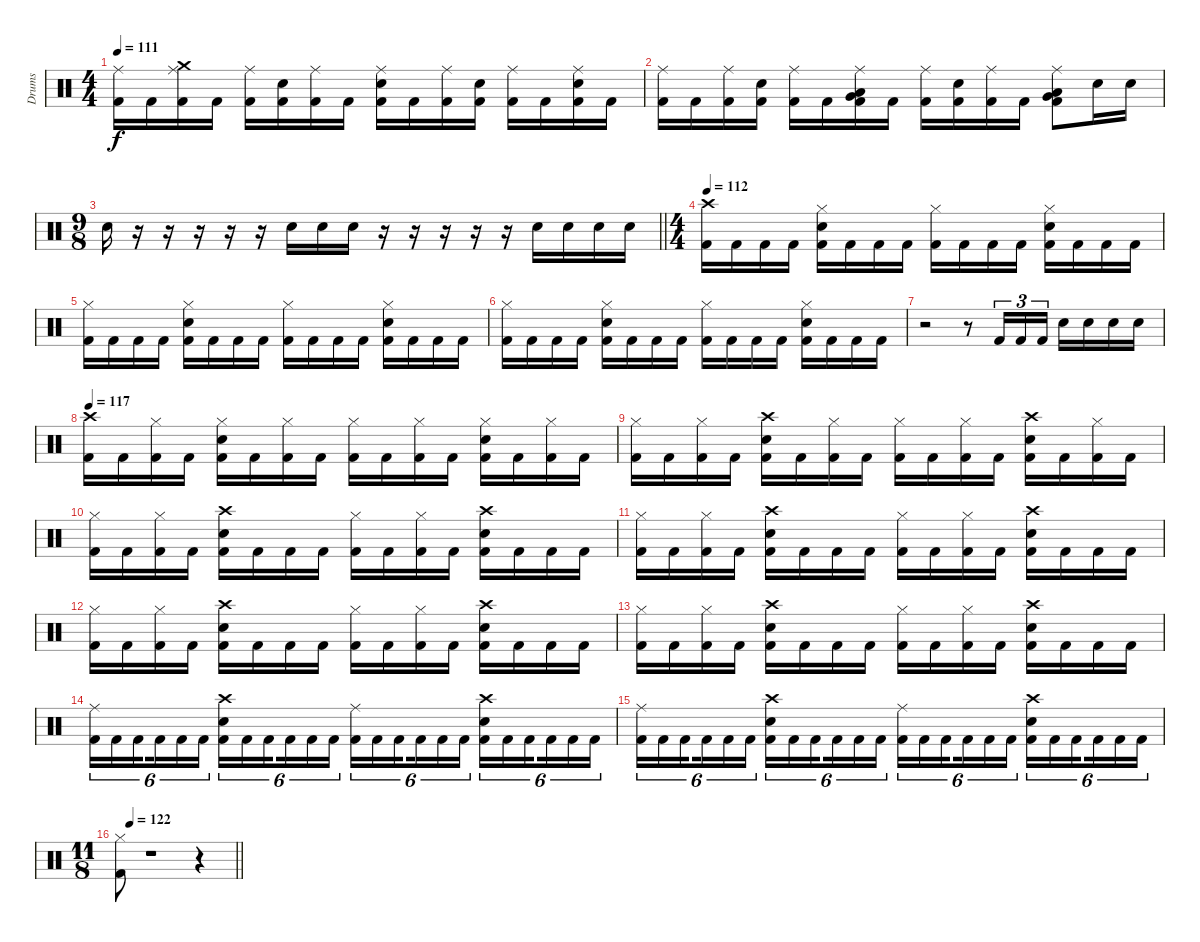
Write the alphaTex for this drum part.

\track ("Drums" "Drums") {instrument percussion}
\staff {score}
\articulation defaults
\ts (4 4)
\tempo 111
\clef neutral
\ks c
("Ride (middle)" "Kick (hit) 2").16{dy f} "Kick (hit) 2".16 ("Ride (middle)" "Crash medium (hit)" "Kick (hit) 2").16 "Kick (hit) 2".16 ("Ride (middle)" "Kick (hit) 2").16 ("Snare (hit) 2" "Kick (hit) 2").16 ("Ride (middle)" "Kick (hit) 2").16 "Kick (hit) 2".16 ("Ride (middle)" "Snare (hit) 2" "Kick (hit) 2").16 "Kick (hit) 2".16 ("Ride (middle)" "Kick (hit) 2").16 ("Snare (hit) 2" "Kick (hit) 2").16 ("Ride (middle)" "Kick (hit) 2").16 "Kick (hit) 2".16 ("Ride (middle)" "Snare (hit) 2" "Kick (hit) 2").16 "Kick (hit) 2".16 |
("Ride (middle)" "Kick (hit) 2").16 "Kick (hit) 2".16 ("Ride (middle)" "Kick (hit) 2").16 ("Snare (hit) 2" "Kick (hit) 2").16 ("Ride (middle)" "Kick (hit) 2").16 "Kick (hit) 2".16 ("Ride (middle)" "Low Tom (hit)" "Very Low Tom (hit)" "Kick (hit) 2").16 "Kick (hit) 2".16 ("Ride (middle)" "Kick (hit) 2").16 ("Snare (hit) 2" "Kick (hit) 2").16 ("Ride (middle)" "Kick (hit) 2").16 "Kick (hit) 2".16 ("Ride (middle)" "Low Tom (hit)" "Very Low Tom (hit)" "Kick (hit) 2").8 "Snare (hit) 2".16 "Snare (hit) 2".16 |
\ts (9 8)
\barLineRight lightlight "Snare (hit) 2".16
r.16 r.16 r.16 r.16 r.16 "Snare (hit) 2".16 "Snare (hit) 2".16 "Snare (hit) 2".16 r.16 r.16 r.16 r.16 r.16 "Snare (hit) 2".16 "Snare (hit) 2".16 "Snare (hit) 2".16 "Snare (hit) 2".16 |
\ts (4 4)
\section ("" "")
\tempo 112
("Crash high (hit)" "Kick (hit) 2").16 "Kick (hit) 2".16 "Kick (hit) 2".16 "Kick (hit) 2".16 ("Hi-Hat (closed)" "Snare (hit) 2" "Kick (hit) 2").16 "Kick (hit) 2".16 "Kick (hit) 2".16 "Kick (hit) 2".16 ("Hi-Hat (closed)" "Kick (hit) 2").16 "Kick (hit) 2".16 "Kick (hit) 2".16 "Kick (hit) 2".16 ("Hi-Hat (closed)" "Snare (hit) 2" "Kick (hit) 2").16 "Kick (hit) 2".16 "Kick (hit) 2".16 "Kick (hit) 2".16 |
("Hi-Hat (closed)" "Kick (hit) 2").16 "Kick (hit) 2".16 "Kick (hit) 2".16 "Kick (hit) 2".16 ("Hi-Hat (closed)" "Snare (hit) 2" "Kick (hit) 2").16 "Kick (hit) 2".16 "Kick (hit) 2".16 "Kick (hit) 2".16 ("Hi-Hat (closed)" "Kick (hit) 2").16 "Kick (hit) 2".16 "Kick (hit) 2".16 "Kick (hit) 2".16 ("Hi-Hat (closed)" "Snare (hit) 2" "Kick (hit) 2").16 "Kick (hit) 2".16 "Kick (hit) 2".16 "Kick (hit) 2".16 |
("Hi-Hat (closed)" "Kick (hit) 2").16 "Kick (hit) 2".16 "Kick (hit) 2".16 "Kick (hit) 2".16 ("Hi-Hat (closed)" "Snare (hit) 2" "Kick (hit) 2").16 "Kick (hit) 2".16 "Kick (hit) 2".16 "Kick (hit) 2".16 ("Hi-Hat (closed)" "Kick (hit) 2").16 "Kick (hit) 2".16 "Kick (hit) 2".16 "Kick (hit) 2".16 ("Hi-Hat (closed)" "Snare (hit) 2" "Kick (hit) 2").16 "Kick (hit) 2".16 "Kick (hit) 2".16 "Kick (hit) 2".16 |
r.2 r.8 "Kick (hit) 2".16{tu (3 2)} "Kick (hit) 2".16{tu (3 2)} "Kick (hit) 2".16{tu (3 2)} "Snare (hit) 2".16 "Snare (hit) 2".16 "Snare (hit) 2".16 "Snare (hit) 2".16 |
\tempo 117
("Crash high (hit)" "Kick (hit) 2").16 "Kick (hit) 2".16 ("Hi-Hat (closed)" "Kick (hit) 2").16 "Kick (hit) 2".16 ("Hi-Hat (closed)" "Snare (hit) 2" "Kick (hit) 2").16 "Kick (hit) 2".16 ("Hi-Hat (closed)" "Kick (hit) 2").16 "Kick (hit) 2".16 ("Hi-Hat (closed)" "Kick (hit) 2").16 "Kick (hit) 2".16 ("Hi-Hat (closed)" "Kick (hit) 2").16 "Kick (hit) 2".16 ("Hi-Hat (closed)" "Snare (hit) 2" "Kick (hit) 2").16 "Kick (hit) 2".16 ("Hi-Hat (closed)" "Kick (hit) 2").16 "Kick (hit) 2".16 |
("Hi-Hat (closed)" "Kick (hit) 2").16 "Kick (hit) 2".16 ("Hi-Hat (closed)" "Kick (hit) 2").16 "Kick (hit) 2".16 ("Crash high (hit)" "Snare (hit) 2" "Kick (hit) 2").16 "Kick (hit) 2".16 ("Hi-Hat (closed)" "Kick (hit) 2").16 "Kick (hit) 2".16 ("Hi-Hat (closed)" "Kick (hit) 2").16 "Kick (hit) 2".16 ("Hi-Hat (closed)" "Kick (hit) 2").16 "Kick (hit) 2".16 ("Crash high (hit)" "Snare (hit) 2" "Kick (hit) 2").16 "Kick (hit) 2".16 ("Hi-Hat (closed)" "Kick (hit) 2").16 "Kick (hit) 2".16 |
("Hi-Hat (closed)" "Kick (hit) 2").16 "Kick (hit) 2".16 ("Hi-Hat (closed)" "Kick (hit) 2").16 "Kick (hit) 2".16 ("Crash high (hit)" "Snare (hit) 2" "Kick (hit) 2").16 "Kick (hit) 2".16 "Kick (hit) 2".16 "Kick (hit) 2".16 ("Hi-Hat (closed)" "Kick (hit) 2").16 "Kick (hit) 2".16 ("Hi-Hat (closed)" "Kick (hit) 2").16 "Kick (hit) 2".16 ("Crash high (hit)" "Snare (hit) 2" "Kick (hit) 2").16 "Kick (hit) 2".16 "Kick (hit) 2".16 "Kick (hit) 2".16 |
("Hi-Hat (closed)" "Kick (hit) 2").16 "Kick (hit) 2".16 ("Hi-Hat (closed)" "Kick (hit) 2").16 "Kick (hit) 2".16 ("Crash high (hit)" "Snare (hit) 2" "Kick (hit) 2").16 "Kick (hit) 2".16 "Kick (hit) 2".16 "Kick (hit) 2".16 ("Hi-Hat (closed)" "Kick (hit) 2").16 "Kick (hit) 2".16 ("Hi-Hat (closed)" "Kick (hit) 2").16 "Kick (hit) 2".16 ("Crash high (hit)" "Snare (hit) 2" "Kick (hit) 2").16 "Kick (hit) 2".16 "Kick (hit) 2".16 "Kick (hit) 2".16 |
("Hi-Hat (closed)" "Kick (hit) 2").16 "Kick (hit) 2".16 ("Hi-Hat (closed)" "Kick (hit) 2").16 "Kick (hit) 2".16 ("Crash high (hit)" "Snare (hit) 2" "Kick (hit) 2").16 "Kick (hit) 2".16 "Kick (hit) 2".16 "Kick (hit) 2".16 ("Hi-Hat (closed)" "Kick (hit) 2").16 "Kick (hit) 2".16 ("Hi-Hat (closed)" "Kick (hit) 2").16 "Kick (hit) 2".16 ("Crash high (hit)" "Snare (hit) 2" "Kick (hit) 2").16 "Kick (hit) 2".16 "Kick (hit) 2".16 "Kick (hit) 2".16 |
("Hi-Hat (closed)" "Kick (hit) 2").16 "Kick (hit) 2".16 ("Hi-Hat (closed)" "Kick (hit) 2").16 "Kick (hit) 2".16 ("Crash high (hit)" "Snare (hit) 2" "Kick (hit) 2").16 "Kick (hit) 2".16 "Kick (hit) 2".16 "Kick (hit) 2".16 ("Hi-Hat (closed)" "Kick (hit) 2").16 "Kick (hit) 2".16 ("Hi-Hat (closed)" "Kick (hit) 2").16 "Kick (hit) 2".16 ("Crash high (hit)" "Snare (hit) 2" "Kick (hit) 2").16 "Kick (hit) 2".16 "Kick (hit) 2".16 "Kick (hit) 2".16 |
("Ride (middle)" "Kick (hit) 2").16{tu (6 4)} "Kick (hit) 2".16{tu (6 4)} "Kick (hit) 2".16{tu (6 4) beam splitsecondary} "Kick (hit) 2".16{tu (6 4)} "Kick (hit) 2".16{tu (6 4)} "Kick (hit) 2".16{tu (6 4)} ("Crash high (hit)" "Snare (hit) 2" "Kick (hit) 2").16{tu (6 4)} "Kick (hit) 2".16{tu (6 4)} "Kick (hit) 2".16{tu (6 4) beam splitsecondary} "Kick (hit) 2".16{tu (6 4)} "Kick (hit) 2".16{tu (6 4)} "Kick (hit) 2".16{tu (6 4)} ("Ride (middle)" "Kick (hit) 2").16{tu (6 4)} "Kick (hit) 2".16{tu (6 4)} "Kick (hit) 2".16{tu (6 4) beam splitsecondary} "Kick (hit) 2".16{tu (6 4)} "Kick (hit) 2".16{tu (6 4)} "Kick (hit) 2".16{tu (6 4)} ("Crash high (hit)" "Snare (hit) 2" "Kick (hit) 2").16{tu (6 4)} "Kick (hit) 2".16{tu (6 4)} "Kick (hit) 2".16{tu (6 4) beam splitsecondary} "Kick (hit) 2".16{tu (6 4)} "Kick (hit) 2".16{tu (6 4)} "Kick (hit) 2".16{tu (6 4)} |
("Ride (middle)" "Kick (hit) 2").16{tu (6 4)} "Kick (hit) 2".16{tu (6 4)} "Kick (hit) 2".16{tu (6 4) beam splitsecondary} "Kick (hit) 2".16{tu (6 4)} "Kick (hit) 2".16{tu (6 4)} "Kick (hit) 2".16{tu (6 4)} ("Crash high (hit)" "Snare (hit) 2" "Kick (hit) 2").16{tu (6 4)} "Kick (hit) 2".16{tu (6 4)} "Kick (hit) 2".16{tu (6 4) beam splitsecondary} "Kick (hit) 2".16{tu (6 4)} "Kick (hit) 2".16{tu (6 4)} "Kick (hit) 2".16{tu (6 4)} ("Ride (middle)" "Kick (hit) 2").16{tu (6 4)} "Kick (hit) 2".16{tu (6 4)} "Kick (hit) 2".16{tu (6 4) beam splitsecondary} "Kick (hit) 2".16{tu (6 4)} "Kick (hit) 2".16{tu (6 4)} "Kick (hit) 2".16{tu (6 4)} ("Crash high (hit)" "Snare (hit) 2" "Kick (hit) 2").16{tu (6 4)} "Kick (hit) 2".16{tu (6 4)} "Kick (hit) 2".16{tu (6 4) beam splitsecondary} "Kick (hit) 2".16{tu (6 4)} "Kick (hit) 2".16{tu (6 4)} "Kick (hit) 2".16{tu (6 4)} |
\ts (11 8)
\tempo (122 0.09090909090909091)
\barLineRight lightlight
("Hi-Hat (closed)" "Kick (hit) 2").8 r.1 r.4
